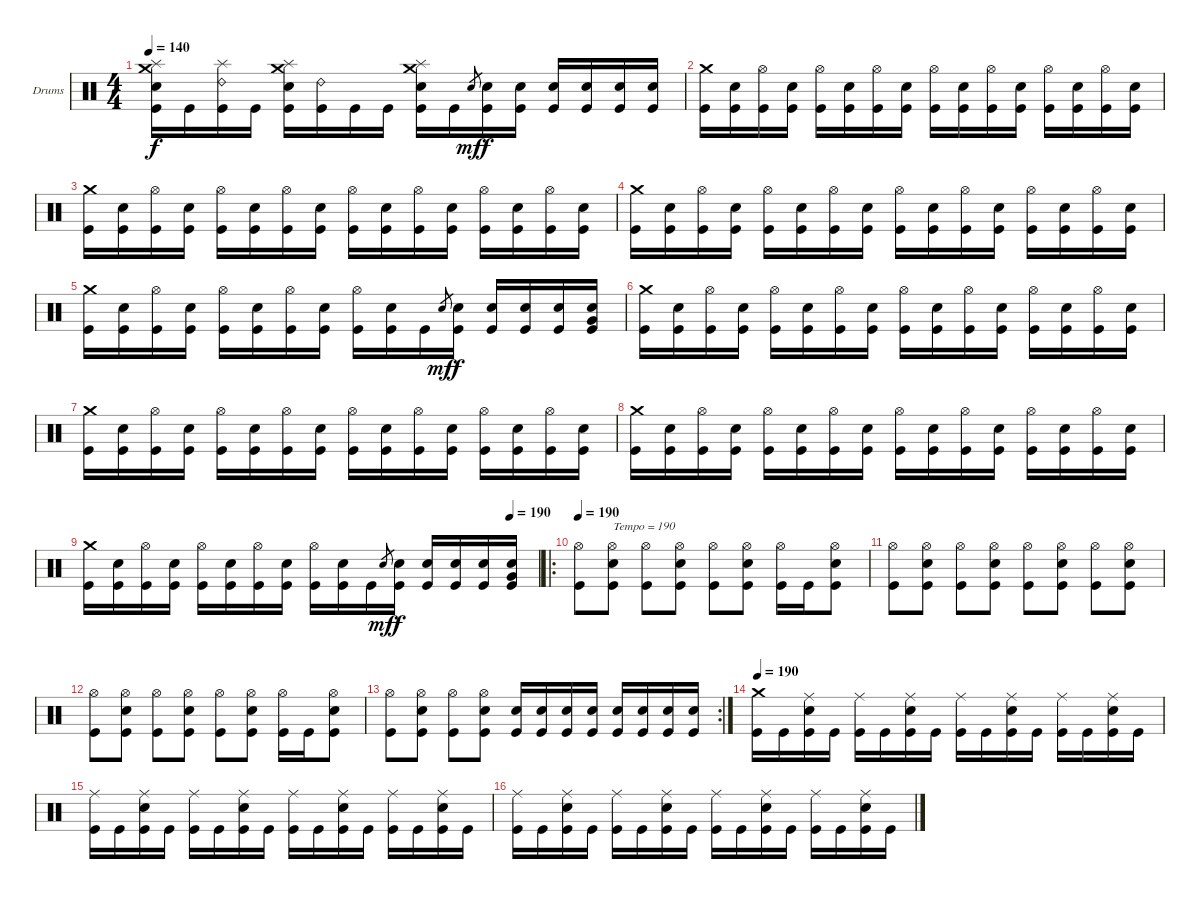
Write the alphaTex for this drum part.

\bracketExtendMode groupsimilarinstruments
\firstSystemTrackNameOrientation horizontal
\otherSystemsTrackNameOrientation horizontal
\track ("Drumkit" "Drums") {instrument percussion}
\staff {score}
\articulation defaults
\ts (4 4)
\tempo 140
\clef neutral
\ks c
("Crash medium (hit)" "Splash (hit)" "Snare (hit) 2" "Kick (hit)").16{dy f} "Kick (hit)".16 ("Splash (hit)" "Ride (bell) 2" "Kick (hit)").16 "Kick (hit)".16 ("Splash (hit)" "Crash medium (hit)" "Snare (hit) 2" "Kick (hit)").16 ("Ride (bell) 2" "Kick (hit)").16 "Kick (hit)".16 "Kick (hit)".16 ("Crash medium (hit)" "Splash (hit)" "Snare (hit) 2" "Kick (hit)").16 "Kick (hit)".16 "Snare (hit) 2".8{gr dy mf} ("Snare (hit) 2" "Kick (hit)").16{dy f} ("Snare (hit) 2" "Kick (hit)").16 ("Snare (hit) 2" "Kick (hit)").16 ("Snare (hit) 2" "Kick (hit)").16 ("Snare (hit) 2" "Kick (hit)").16 ("Snare (hit) 2" "Kick (hit)").16 |
("Crash medium (hit)" "Kick (hit)").16 ("Snare (hit) 2" "Kick (hit)").16 ("Hi-Hat (open)" "Kick (hit)").16 ("Snare (hit) 2" "Kick (hit)").16 ("Hi-Hat (open)" "Kick (hit)").16 ("Snare (hit) 2" "Kick (hit)").16 ("Hi-Hat (open)" "Kick (hit)").16 ("Snare (hit) 2" "Kick (hit)").16 ("Hi-Hat (open)" "Kick (hit)").16 ("Snare (hit) 2" "Kick (hit)").16 ("Hi-Hat (open)" "Kick (hit)").16 ("Snare (hit) 2" "Kick (hit)").16 ("Hi-Hat (open)" "Kick (hit)").16 ("Snare (hit) 2" "Kick (hit)").16 ("Hi-Hat (open)" "Kick (hit)").16 ("Snare (hit) 2" "Kick (hit)").16 |
("Crash medium (hit)" "Kick (hit)").16 ("Snare (hit) 2" "Kick (hit)").16 ("Hi-Hat (open)" "Kick (hit)").16 ("Snare (hit) 2" "Kick (hit)").16 ("Hi-Hat (open)" "Kick (hit)").16 ("Snare (hit) 2" "Kick (hit)").16 ("Hi-Hat (open)" "Kick (hit)").16 ("Snare (hit) 2" "Kick (hit)").16 ("Hi-Hat (open)" "Kick (hit)").16 ("Snare (hit) 2" "Kick (hit)").16 ("Hi-Hat (open)" "Kick (hit)").16 ("Snare (hit) 2" "Kick (hit)").16 ("Hi-Hat (open)" "Kick (hit)").16 ("Snare (hit) 2" "Kick (hit)").16 ("Hi-Hat (open)" "Kick (hit)").16 ("Snare (hit) 2" "Kick (hit)").16 |
("Crash medium (hit)" "Kick (hit)").16 ("Snare (hit) 2" "Kick (hit)").16 ("Hi-Hat (open)" "Kick (hit)").16 ("Snare (hit) 2" "Kick (hit)").16 ("Hi-Hat (open)" "Kick (hit)").16 ("Snare (hit) 2" "Kick (hit)").16 ("Hi-Hat (open)" "Kick (hit)").16 ("Snare (hit) 2" "Kick (hit)").16 ("Hi-Hat (open)" "Kick (hit)").16 ("Snare (hit) 2" "Kick (hit)").16 ("Hi-Hat (open)" "Kick (hit)").16 ("Snare (hit) 2" "Kick (hit)").16 ("Hi-Hat (open)" "Kick (hit)").16 ("Snare (hit) 2" "Kick (hit)").16 ("Hi-Hat (open)" "Kick (hit)").16 ("Snare (hit) 2" "Kick (hit)").16 |
("Crash medium (hit)" "Kick (hit)").16 ("Snare (hit) 2" "Kick (hit)").16 ("Hi-Hat (open)" "Kick (hit)").16 ("Snare (hit) 2" "Kick (hit)").16 ("Hi-Hat (open)" "Kick (hit)").16 ("Snare (hit) 2" "Kick (hit)").16 ("Hi-Hat (open)" "Kick (hit)").16 ("Snare (hit) 2" "Kick (hit)").16 ("Hi-Hat (open)" "Kick (hit)").16 ("Snare (hit) 2" "Kick (hit)").16 "Kick (hit)".16 "Snare (hit) 2".8{gr dy mf} ("Snare (hit) 2" "Kick (hit)").16{dy f} ("Snare (hit) 2" "Kick (hit)").16 ("Snare (hit) 2" "Kick (hit)").16 ("Snare (hit) 2" "Kick (hit)").16 ("Snare (hit) 2" "Very Low Tom (hit)" "Kick (hit)").16 |
("Crash medium (hit)" "Kick (hit)").16 ("Snare (hit) 2" "Kick (hit)").16 ("Hi-Hat (open)" "Kick (hit)").16 ("Snare (hit) 2" "Kick (hit)").16 ("Hi-Hat (open)" "Kick (hit)").16 ("Snare (hit) 2" "Kick (hit)").16 ("Hi-Hat (open)" "Kick (hit)").16 ("Snare (hit) 2" "Kick (hit)").16 ("Hi-Hat (open)" "Kick (hit)").16 ("Snare (hit) 2" "Kick (hit)").16 ("Hi-Hat (open)" "Kick (hit)").16 ("Snare (hit) 2" "Kick (hit)").16 ("Hi-Hat (open)" "Kick (hit)").16 ("Snare (hit) 2" "Kick (hit)").16 ("Hi-Hat (open)" "Kick (hit)").16 ("Snare (hit) 2" "Kick (hit)").16 |
("Crash medium (hit)" "Kick (hit)").16 ("Snare (hit) 2" "Kick (hit)").16 ("Hi-Hat (open)" "Kick (hit)").16 ("Snare (hit) 2" "Kick (hit)").16 ("Hi-Hat (open)" "Kick (hit)").16 ("Snare (hit) 2" "Kick (hit)").16 ("Hi-Hat (open)" "Kick (hit)").16 ("Snare (hit) 2" "Kick (hit)").16 ("Hi-Hat (open)" "Kick (hit)").16 ("Snare (hit) 2" "Kick (hit)").16 ("Hi-Hat (open)" "Kick (hit)").16 ("Snare (hit) 2" "Kick (hit)").16 ("Hi-Hat (open)" "Kick (hit)").16 ("Snare (hit) 2" "Kick (hit)").16 ("Hi-Hat (open)" "Kick (hit)").16 ("Snare (hit) 2" "Kick (hit)").16 |
("Crash medium (hit)" "Kick (hit)").16 ("Snare (hit) 2" "Kick (hit)").16 ("Hi-Hat (open)" "Kick (hit)").16 ("Snare (hit) 2" "Kick (hit)").16 ("Hi-Hat (open)" "Kick (hit)").16 ("Snare (hit) 2" "Kick (hit)").16 ("Hi-Hat (open)" "Kick (hit)").16 ("Snare (hit) 2" "Kick (hit)").16 ("Hi-Hat (open)" "Kick (hit)").16 ("Snare (hit) 2" "Kick (hit)").16 ("Hi-Hat (open)" "Kick (hit)").16 ("Snare (hit) 2" "Kick (hit)").16 ("Hi-Hat (open)" "Kick (hit)").16 ("Snare (hit) 2" "Kick (hit)").16 ("Hi-Hat (open)" "Kick (hit)").16 ("Snare (hit) 2" "Kick (hit)").16 |
\tempo (190 0.9375)
("Crash medium (hit)" "Kick (hit)").16 ("Snare (hit) 2" "Kick (hit)").16 ("Hi-Hat (open)" "Kick (hit)").16 ("Snare (hit) 2" "Kick (hit)").16 ("Hi-Hat (open)" "Kick (hit)").16 ("Snare (hit) 2" "Kick (hit)").16 ("Hi-Hat (open)" "Kick (hit)").16 ("Snare (hit) 2" "Kick (hit)").16 ("Hi-Hat (open)" "Kick (hit)").16 ("Snare (hit) 2" "Kick (hit)").16 "Kick (hit)".16 "Snare (hit) 2".8{gr dy mf} ("Snare (hit) 2" "Kick (hit)").16{dy f} ("Snare (hit) 2" "Kick (hit)").16 ("Snare (hit) 2" "Kick (hit)").16 ("Snare (hit) 2" "Kick (hit)").16 ("Snare (hit) 2" "Very Low Tom (hit)" "Kick (hit)").16 |
\ro
\tempo 190
("Hi-Hat (open)" "Kick (hit)").8 ("Hi-Hat (open)" "Snare (hit) 2" "Kick (hit)").8{txt "Tempo = 190"} ("Hi-Hat (open)" "Kick (hit)").8 ("Hi-Hat (open)" "Snare (hit) 2" "Kick (hit)").8 ("Hi-Hat (open)" "Kick (hit)").8 ("Hi-Hat (open)" "Snare (hit) 2" "Kick (hit)").8 ("Hi-Hat (open)" "Kick (hit)").16 "Kick (hit)".16 ("Hi-Hat (open)" "Snare (hit) 2" "Kick (hit)").8 |
("Hi-Hat (open)" "Kick (hit)").8 ("Hi-Hat (open)" "Snare (hit) 2" "Kick (hit)").8 ("Hi-Hat (open)" "Kick (hit)").8 ("Hi-Hat (open)" "Snare (hit) 2" "Kick (hit)").8 ("Hi-Hat (open)" "Kick (hit)").8 ("Hi-Hat (open)" "Snare (hit) 2" "Kick (hit)").8 ("Hi-Hat (open)" "Kick (hit)").8 ("Hi-Hat (open)" "Snare (hit) 2" "Kick (hit)").8 |
("Hi-Hat (open)" "Kick (hit)").8 ("Hi-Hat (open)" "Snare (hit) 2" "Kick (hit)").8 ("Hi-Hat (open)" "Kick (hit)").8 ("Hi-Hat (open)" "Snare (hit) 2" "Kick (hit)").8 ("Hi-Hat (open)" "Kick (hit)").8 ("Hi-Hat (open)" "Snare (hit) 2" "Kick (hit)").8 ("Hi-Hat (open)" "Kick (hit)").16 "Kick (hit)".16 ("Hi-Hat (open)" "Snare (hit) 2" "Kick (hit)").8 |
\rc 2
("Hi-Hat (open)" "Kick (hit)").8 ("Hi-Hat (open)" "Snare (hit) 2" "Kick (hit)").8 ("Hi-Hat (open)" "Kick (hit)").8 ("Hi-Hat (open)" "Snare (hit) 2" "Kick (hit)").8 ("Snare (hit) 2" "Kick (hit)").16 ("Snare (hit) 2" "Kick (hit)").16 ("Snare (hit) 2" "Kick (hit)").16 ("Snare (hit) 2" "Kick (hit)").16 ("Snare (hit) 2" "Kick (hit)").16 ("Snare (hit) 2" "Kick (hit)").16 ("Snare (hit) 2" "Kick (hit)").16 ("Snare (hit) 2" "Kick (hit)").16 |
\tempo 190
("Crash medium (hit)" "Kick (hit)").16 "Kick (hit)".16 ("Ride (middle)" "Snare (hit) 2" "Kick (hit)").16 "Kick (hit)".16 ("Ride (middle)" "Kick (hit)").16 "Kick (hit)".16 ("Ride (middle)" "Snare (hit) 2" "Kick (hit)").16 "Kick (hit)".16 ("Ride (middle)" "Kick (hit)").16 "Kick (hit)".16 ("Ride (middle)" "Snare (hit) 2" "Kick (hit)").16 "Kick (hit)".16 ("Ride (middle)" "Kick (hit)").16 "Kick (hit)".16 ("Ride (middle)" "Snare (hit) 2" "Kick (hit)").16 "Kick (hit)".16 |
("Ride (middle)" "Kick (hit)").16 "Kick (hit)".16 ("Ride (middle)" "Snare (hit) 2" "Kick (hit)").16 "Kick (hit)".16 ("Ride (middle)" "Kick (hit)").16 "Kick (hit)".16 ("Ride (middle)" "Snare (hit) 2" "Kick (hit)").16 "Kick (hit)".16 ("Ride (middle)" "Kick (hit)").16 "Kick (hit)".16 ("Ride (middle)" "Snare (hit) 2" "Kick (hit)").16 "Kick (hit)".16 ("Ride (middle)" "Kick (hit)").16 "Kick (hit)".16 ("Ride (middle)" "Snare (hit) 2" "Kick (hit)").16 "Kick (hit)".16 |
("Ride (middle)" "Kick (hit)").16 "Kick (hit)".16 ("Ride (middle)" "Snare (hit) 2" "Kick (hit)").16 "Kick (hit)".16 ("Ride (middle)" "Kick (hit)").16 "Kick (hit)".16 ("Ride (middle)" "Snare (hit) 2" "Kick (hit)").16 "Kick (hit)".16 ("Ride (middle)" "Kick (hit)").16 "Kick (hit)".16 ("Ride (middle)" "Snare (hit) 2" "Kick (hit)").16 "Kick (hit)".16 ("Ride (middle)" "Kick (hit)").16 "Kick (hit)".16 ("Ride (middle)" "Snare (hit) 2" "Kick (hit)").16 "Kick (hit)".16
